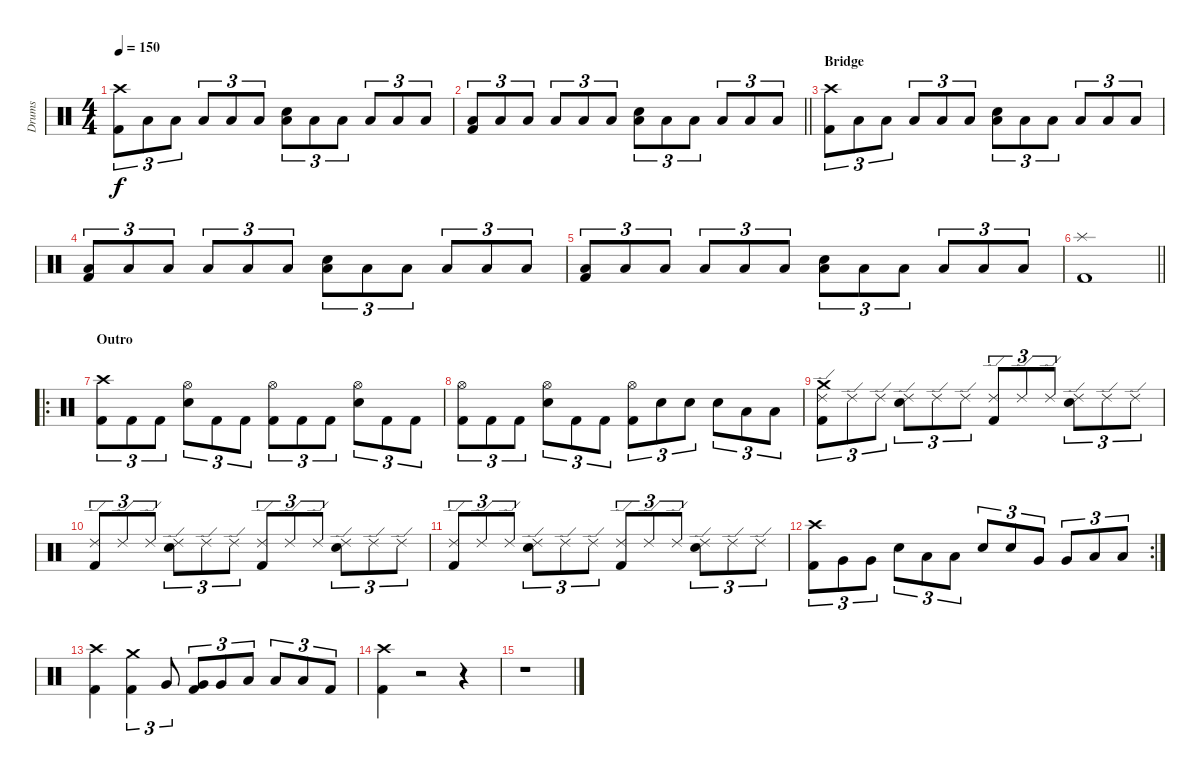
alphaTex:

\track ("Drums" "Drums") {instrument percussion}
\staff {score}
\articulation defaults
\ts (4 4)
\tempo 150
\clef neutral
\ks c
("Crash high (hit)" "Kick (hit) 2").8{tu (3 2) dy f} "Low Floor Tom (hit)".8{tu (3 2)} "Low Floor Tom (hit)".8{tu (3 2)} "Low Floor Tom (hit)".8{tu (3 2)} "Low Floor Tom (hit)".8{tu (3 2)} "Low Floor Tom (hit)".8{tu (3 2)} ("Electric Snare (hit)" "Low Floor Tom (hit)").8{tu (3 2)} "Low Floor Tom (hit)".8{tu (3 2)} "Low Floor Tom (hit)".8{tu (3 2)} "Low Floor Tom (hit)".8{tu (3 2)} "Low Floor Tom (hit)".8{tu (3 2)} "Low Floor Tom (hit)".8{tu (3 2)} |
\barLineRight lightlight
("Kick (hit) 2" "Low Floor Tom (hit)").8{tu (3 2)} "Low Floor Tom (hit)".8{tu (3 2)} "Low Floor Tom (hit)".8{tu (3 2)} "Low Floor Tom (hit)".8{tu (3 2)} "Low Floor Tom (hit)".8{tu (3 2)} "Low Floor Tom (hit)".8{tu (3 2)} ("Electric Snare (hit)" "Low Floor Tom (hit)").8{tu (3 2)} "Low Floor Tom (hit)".8{tu (3 2)} "Low Floor Tom (hit)".8{tu (3 2)} "Low Floor Tom (hit)".8{tu (3 2)} "Low Floor Tom (hit)".8{tu (3 2)} "Low Floor Tom (hit)".8{tu (3 2)} |
\section ("" "Bridge")
("Crash high (hit)" "Kick (hit) 2").8{tu (3 2)} "Low Floor Tom (hit)".8{tu (3 2)} "Low Floor Tom (hit)".8{tu (3 2)} "Low Floor Tom (hit)".8{tu (3 2)} "Low Floor Tom (hit)".8{tu (3 2)} "Low Floor Tom (hit)".8{tu (3 2)} ("Electric Snare (hit)" "Low Floor Tom (hit)").8{tu (3 2)} "Low Floor Tom (hit)".8{tu (3 2)} "Low Floor Tom (hit)".8{tu (3 2)} "Low Floor Tom (hit)".8{tu (3 2)} "Low Floor Tom (hit)".8{tu (3 2)} "Low Floor Tom (hit)".8{tu (3 2)} |
("Kick (hit) 2" "Low Floor Tom (hit)").8{tu (3 2)} "Low Floor Tom (hit)".8{tu (3 2)} "Low Floor Tom (hit)".8{tu (3 2)} "Low Floor Tom (hit)".8{tu (3 2)} "Low Floor Tom (hit)".8{tu (3 2)} "Low Floor Tom (hit)".8{tu (3 2)} ("Electric Snare (hit)" "Low Floor Tom (hit)").8{tu (3 2)} "Low Floor Tom (hit)".8{tu (3 2)} "Low Floor Tom (hit)".8{tu (3 2)} "Low Floor Tom (hit)".8{tu (3 2)} "Low Floor Tom (hit)".8{tu (3 2)} "Low Floor Tom (hit)".8{tu (3 2)} |
("Kick (hit) 2" "Low Floor Tom (hit)").8{tu (3 2)} "Low Floor Tom (hit)".8{tu (3 2)} "Low Floor Tom (hit)".8{tu (3 2)} "Low Floor Tom (hit)".8{tu (3 2)} "Low Floor Tom (hit)".8{tu (3 2)} "Low Floor Tom (hit)".8{tu (3 2)} ("Electric Snare (hit)" "Low Floor Tom (hit)").8{tu (3 2)} "Low Floor Tom (hit)".8{tu (3 2)} "Low Floor Tom (hit)".8{tu (3 2)} "Low Floor Tom (hit)".8{tu (3 2)} "Low Floor Tom (hit)".8{tu (3 2)} "Low Floor Tom (hit)".8{tu (3 2)} |
\barLineRight lightlight
("Splash (hit)" "Kick (hit) 2").1 |
\ro
\section ("" "Outro")
("Crash high (hit)" "Kick (hit) 2").8{tu (3 2)} "Kick (hit) 2".8{tu (3 2)} "Kick (hit) 2".8{tu (3 2)} ("Hi-Hat (open)" "Electric Snare (hit)").8{tu (3 2)} "Kick (hit) 2".8{tu (3 2)} "Kick (hit) 2".8{tu (3 2)} ("Hi-Hat (open)" "Kick (hit) 2").8{tu (3 2)} "Kick (hit) 2".8{tu (3 2)} "Kick (hit) 2".8{tu (3 2)} ("Hi-Hat (open)" "Electric Snare (hit)").8{tu (3 2)} "Kick (hit) 2".8{tu (3 2)} "Kick (hit) 2".8{tu (3 2)} |
("Hi-Hat (open)" "Kick (hit) 2").8{tu (3 2)} "Kick (hit) 2".8{tu (3 2)} "Kick (hit) 2".8{tu (3 2)} ("Hi-Hat (open)" "Electric Snare (hit)").8{tu (3 2)} "Kick (hit) 2".8{tu (3 2)} "Kick (hit) 2".8{tu (3 2)} ("Hi-Hat (open)" "Kick (hit) 2").8{tu (3 2)} "Electric Snare (hit)".8{tu (3 2)} "Electric Snare (hit)".8{tu (3 2)} "Electric Snare (hit)".8{tu (3 2)} "Low Floor Tom (hit)".8{tu (3 2)} "Low Floor Tom (hit)".8{tu (3 2)} |
("Ride (edge) 2" "Crash medium (hit)" "Kick (hit) 2").8{tu (3 2)} "Ride (edge) 2".8{tu (3 2)} "Ride (edge) 2".8{tu (3 2)} ("Ride (edge) 2" "Electric Snare (hit)").8{tu (3 2)} "Ride (edge) 2".8{tu (3 2)} "Ride (edge) 2".8{tu (3 2)} ("Ride (edge) 2" "Kick (hit) 2").8{tu (3 2)} "Ride (edge) 2".8{tu (3 2)} "Ride (edge) 2".8{tu (3 2)} ("Ride (edge) 2" "Electric Snare (hit)").8{tu (3 2)} "Ride (edge) 2".8{tu (3 2)} "Ride (edge) 2".8{tu (3 2)} |
("Ride (edge) 2" "Kick (hit) 2").8{tu (3 2)} "Ride (edge) 2".8{tu (3 2)} "Ride (edge) 2".8{tu (3 2)} ("Ride (edge) 2" "Electric Snare (hit)").8{tu (3 2)} "Ride (edge) 2".8{tu (3 2)} "Ride (edge) 2".8{tu (3 2)} ("Ride (edge) 2" "Kick (hit) 2").8{tu (3 2)} "Ride (edge) 2".8{tu (3 2)} "Ride (edge) 2".8{tu (3 2)} ("Ride (edge) 2" "Electric Snare (hit)").8{tu (3 2)} "Ride (edge) 2".8{tu (3 2)} "Ride (edge) 2".8{tu (3 2)} |
("Ride (edge) 2" "Kick (hit) 2").8{tu (3 2)} "Ride (edge) 2".8{tu (3 2)} "Ride (edge) 2".8{tu (3 2)} ("Ride (edge) 2" "Electric Snare (hit)").8{tu (3 2)} "Ride (edge) 2".8{tu (3 2)} "Ride (edge) 2".8{tu (3 2)} ("Ride (edge) 2" "Kick (hit) 2").8{tu (3 2)} "Ride (edge) 2".8{tu (3 2)} "Ride (edge) 2".8{tu (3 2)} ("Ride (edge) 2" "Electric Snare (hit)").8{tu (3 2)} "Ride (edge) 2".8{tu (3 2)} "Ride (edge) 2".8{tu (3 2)} |
\rc 2
("Crash high (hit)" "Kick (hit) 2").8{tu (3 2)} "Very Low Tom (hit)".8{tu (3 2)} "Very Low Tom (hit)".8{tu (3 2)} "Electric Snare (hit)".8{tu (3 2)} "Low Floor Tom (hit)".8{tu (3 2)} "Low Floor Tom (hit)".8{tu (3 2)} "Electric Snare (hit)".8{tu (3 2)} "Electric Snare (hit)".8{tu (3 2)} "Very Low Tom (hit)".8{tu (3 2)} "Very Low Tom (hit)".8{tu (3 2)} "Low Floor Tom (hit)".8{tu (3 2)} "Low Floor Tom (hit)".8{tu (3 2)} |
("Crash high (hit)" "Kick (hit) 2").4 ("Crash medium (hit)" "Kick (hit) 2").4{tu (3 2)} "Very Low Tom (hit)".8{tu (3 2)} ("Kick (hit) 2" "Very Low Tom (hit)").8{tu (3 2)} "Very Low Tom (hit)".8{tu (3 2)} "Low Floor Tom (hit)".8{tu (3 2)} "Low Floor Tom (hit)".8{tu (3 2)} "Low Floor Tom (hit)".8{tu (3 2)} "Kick (hit) 2".8{tu (3 2)} |
("Crash high (hit)" "Kick (hit) 2").4 r.2 r.4 |
r.1
